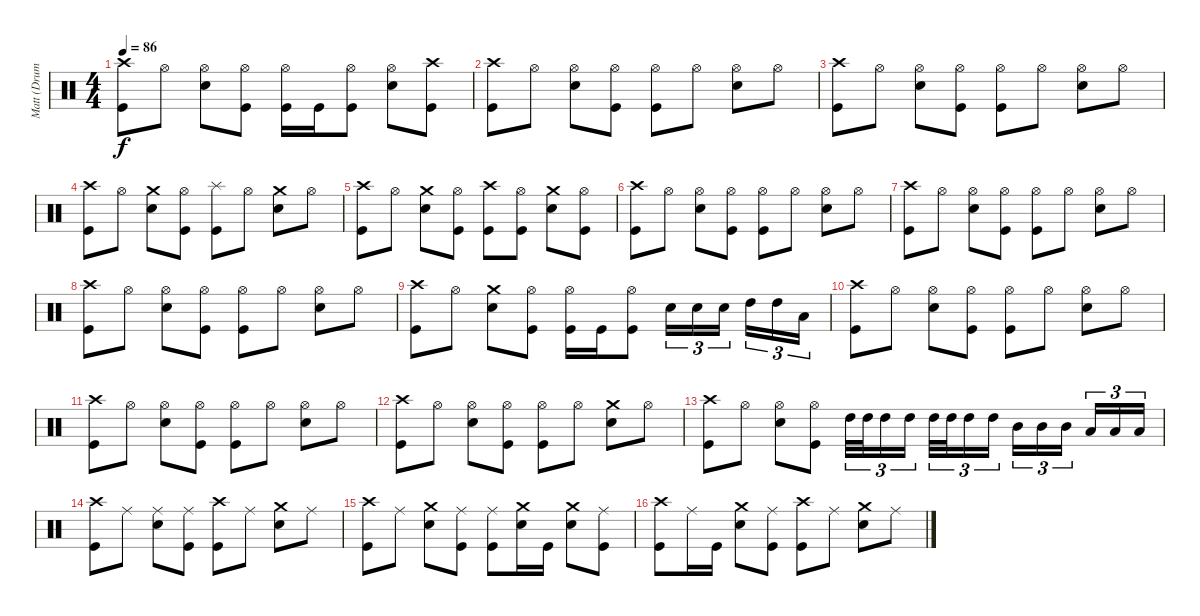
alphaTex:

\track ("Matt (Drums)" "Matt (Drum") {instrument percussion}
\staff {score}
\articulation defaults
\ts (4 4)
\tempo 86
\clef neutral
\ks c
("Crash high (hit)" "Kick (hit)").8{dy f} "Hi-Hat (open)".8 ("Hi-Hat (open)" "Electric Snare (hit)").8 ("Hi-Hat (open)" "Kick (hit)").8 ("Hi-Hat (open)" "Kick (hit)").16 "Kick (hit)".16 ("Hi-Hat (open)" "Kick (hit)").8 ("Hi-Hat (open)" "Electric Snare (hit)").8 ("Crash high (hit)" "Kick (hit)").8 |
("Crash high (hit)" "Kick (hit)").8 "Hi-Hat (open)".8 ("Hi-Hat (open)" "Electric Snare (hit)").8 ("Hi-Hat (open)" "Kick (hit)").8 ("Hi-Hat (open)" "Kick (hit)").8 "Hi-Hat (open)".8 ("Hi-Hat (open)" "Electric Snare (hit)").8 "Hi-Hat (open)".8 |
("Crash high (hit)" "Kick (hit)").8 "Hi-Hat (open)".8 ("Hi-Hat (open)" "Electric Snare (hit)").8 ("Hi-Hat (open)" "Kick (hit)").8 ("Hi-Hat (open)" "Kick (hit)").8 "Hi-Hat (open)".8 ("Hi-Hat (open)" "Electric Snare (hit)").8 "Hi-Hat (open)".8 |
("Crash high (hit)" "Kick (hit)").8 "Hi-Hat (open)".8 ("Crash medium (hit)" "Electric Snare (hit)").8 ("Hi-Hat (open)" "Kick (hit)").8 ("Splash (hit)" "Kick (hit)").8 "Hi-Hat (open)".8 ("Crash medium (hit)" "Electric Snare (hit)").8 "Hi-Hat (open)".8 |
("Crash high (hit)" "Kick (hit)").8 "Hi-Hat (open)".8 ("Crash medium (hit)" "Electric Snare (hit)").8 ("Hi-Hat (open)" "Kick (hit)").8 ("Crash high (hit)" "Kick (hit)").8 ("Hi-Hat (open)" "Kick (hit)").8 ("Crash medium (hit)" "Electric Snare (hit)").8 ("Hi-Hat (open)" "Kick (hit)").8 |
("Crash high (hit)" "Kick (hit)").8 "Hi-Hat (open)".8 ("Hi-Hat (open)" "Electric Snare (hit)").8 ("Hi-Hat (open)" "Kick (hit)").8 ("Hi-Hat (open)" "Kick (hit)").8 "Hi-Hat (open)".8 ("Hi-Hat (open)" "Electric Snare (hit)").8 "Hi-Hat (open)".8 |
("Crash high (hit)" "Kick (hit)").8 "Hi-Hat (open)".8 ("Hi-Hat (open)" "Electric Snare (hit)").8 ("Hi-Hat (open)" "Kick (hit)").8 ("Hi-Hat (open)" "Kick (hit)").8 "Hi-Hat (open)".8 ("Hi-Hat (open)" "Electric Snare (hit)").8 "Hi-Hat (open)".8 |
("Crash high (hit)" "Kick (hit)").8 "Hi-Hat (open)".8 ("Hi-Hat (open)" "Electric Snare (hit)").8 ("Hi-Hat (open)" "Kick (hit)").8 ("Hi-Hat (open)" "Kick (hit)").8 "Hi-Hat (open)".8 ("Hi-Hat (open)" "Electric Snare (hit)").8 "Hi-Hat (open)".8 |
("Crash high (hit)" "Kick (hit)").8 "Hi-Hat (open)".8 ("Crash medium (hit)" "Electric Snare (hit)").8 ("Hi-Hat (open)" "Kick (hit)").8 ("Hi-Hat (open)" "Kick (hit)").16 "Kick (hit)".16 ("Hi-Hat (open)" "Kick (hit)").8 "Electric Snare (hit)".16{tu (3 2)} "Electric Snare (hit)".16{tu (3 2)} "Electric Snare (hit)".16{tu (3 2)} "High Tom (hit)".16{tu (3 2)} "High Tom (hit)".16{tu (3 2)} "Low Tom (hit)".16{tu (3 2)} |
("Crash high (hit)" "Kick (hit)").8 "Hi-Hat (open)".8 ("Hi-Hat (open)" "Electric Snare (hit)").8 ("Hi-Hat (open)" "Kick (hit)").8 ("Hi-Hat (open)" "Kick (hit)").8 "Hi-Hat (open)".8 ("Hi-Hat (open)" "Electric Snare (hit)").8 "Hi-Hat (open)".8 |
("Crash high (hit)" "Kick (hit)").8 "Hi-Hat (open)".8 ("Hi-Hat (open)" "Electric Snare (hit)").8 ("Hi-Hat (open)" "Kick (hit)").8 ("Hi-Hat (open)" "Kick (hit)").8 "Hi-Hat (open)".8 ("Hi-Hat (open)" "Electric Snare (hit)").8 "Hi-Hat (open)".8 |
("Crash high (hit)" "Kick (hit)").8 "Hi-Hat (open)".8 ("Hi-Hat (open)" "Electric Snare (hit)").8 ("Hi-Hat (open)" "Kick (hit)").8 ("Hi-Hat (open)" "Kick (hit)").8 "Hi-Hat (open)".8 ("Crash medium (hit)" "Electric Snare (hit)").8 "Hi-Hat (open)".8 |
("Crash high (hit)" "Kick (hit)").8 "Hi-Hat (open)".8 ("Hi-Hat (open)" "Electric Snare (hit)").8 ("Hi-Hat (open)" "Kick (hit)").8 "High Tom (hit)".32{tu (3 2)} "High Tom (hit)".32{tu (3 2)} "High Tom (hit)".16{tu (3 2)} "High Tom (hit)".16{tu (3 2)} "High Tom (hit)".32{tu (3 2)} "High Tom (hit)".32{tu (3 2)} "High Tom (hit)".16{tu (3 2)} "High Tom (hit)".16{tu (3 2)} "Mid Tom (hit)".16{tu (3 2)} "Mid Tom (hit)".16{tu (3 2)} "Mid Tom (hit)".16{tu (3 2)} "Low Tom (hit)".16{tu (3 2)} "Low Tom (hit)".16{tu (3 2)} "Low Tom (hit)".16{tu (3 2)} |
("Crash high (hit)" "Kick (hit)").8 "Ride (middle)".8 ("Ride (middle)" "Electric Snare (hit)").8 ("Ride (middle)" "Kick (hit)").8 ("Crash high (hit)" "Kick (hit)").8 "Ride (middle)".8 ("Crash medium (hit)" "Electric Snare (hit)").8 "Ride (middle)".8 |
("Crash high (hit)" "Kick (hit)").8 "Ride (middle)".8 ("Crash medium (hit)" "Electric Snare (hit)").8 ("Ride (middle)" "Kick (hit)").8 ("Ride (middle)" "Kick (hit)").8 ("Crash medium (hit)" "Electric Snare (hit)").16 "Kick (hit)".16 ("Crash medium (hit)" "Electric Snare (hit)").8 ("Ride (middle)" "Kick (hit)").8 |
("Crash high (hit)" "Kick (hit)").8 "Ride (middle)".16 "Kick (hit)".16 ("Crash medium (hit)" "Electric Snare (hit)").8 ("Ride (middle)" "Kick (hit)").8 ("Crash high (hit)" "Kick (hit)").8 "Ride (middle)".8 ("Crash medium (hit)" "Electric Snare (hit)").8 "Ride (middle)".8
